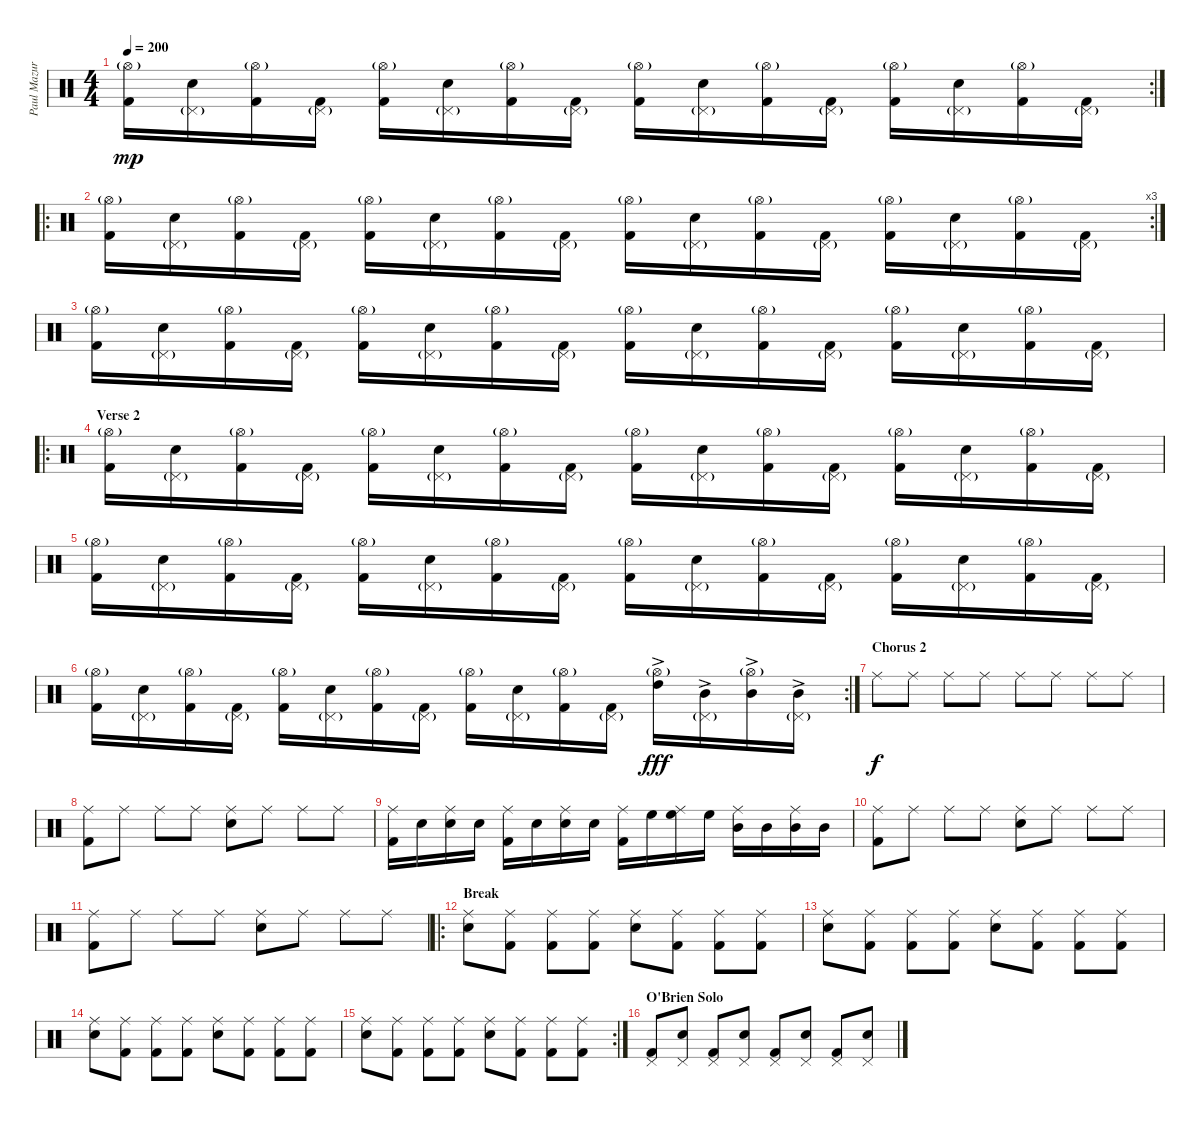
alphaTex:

\track ("Paul Mazurkiewicz" "Paul Mazur") {instrument percussion}
\staff {score}
\articulation defaults
\rc 2
\ts (4 4)
\tempo 200
\clef neutral
\ks c
("Hi-Hat (open)"{g} "Kick (hit) 2").16{dy mp} ("Pedal Hi-Hat (hit)"{g} "Electric Snare (hit)").16 ("Hi-Hat (open)"{g} "Kick (hit) 2").16 ("Pedal Hi-Hat (hit)"{g} "Kick (hit) 2").16 ("Hi-Hat (open)"{g} "Kick (hit) 2").16 ("Pedal Hi-Hat (hit)"{g} "Electric Snare (hit)").16 ("Hi-Hat (open)"{g} "Kick (hit) 2").16 ("Pedal Hi-Hat (hit)"{g} "Kick (hit) 2").16 ("Hi-Hat (open)"{g} "Kick (hit) 2").16 ("Pedal Hi-Hat (hit)"{g} "Electric Snare (hit)").16 ("Hi-Hat (open)"{g} "Kick (hit) 2").16 ("Pedal Hi-Hat (hit)"{g} "Kick (hit) 2").16 ("Hi-Hat (open)"{g} "Kick (hit) 2").16 ("Pedal Hi-Hat (hit)"{g} "Electric Snare (hit)").16 ("Hi-Hat (open)"{g} "Kick (hit) 2").16 ("Pedal Hi-Hat (hit)"{g} "Kick (hit) 2").16 |
\ro
\rc 3
("Hi-Hat (open)"{g} "Kick (hit) 2").16 ("Pedal Hi-Hat (hit)"{g} "Electric Snare (hit)").16 ("Hi-Hat (open)"{g} "Kick (hit) 2").16 ("Pedal Hi-Hat (hit)"{g} "Kick (hit) 2").16 ("Hi-Hat (open)"{g} "Kick (hit) 2").16 ("Pedal Hi-Hat (hit)"{g} "Electric Snare (hit)").16 ("Hi-Hat (open)"{g} "Kick (hit) 2").16 ("Pedal Hi-Hat (hit)"{g} "Kick (hit) 2").16 ("Hi-Hat (open)"{g} "Kick (hit) 2").16 ("Pedal Hi-Hat (hit)"{g} "Electric Snare (hit)").16 ("Hi-Hat (open)"{g} "Kick (hit) 2").16 ("Pedal Hi-Hat (hit)"{g} "Kick (hit) 2").16 ("Hi-Hat (open)"{g} "Kick (hit) 2").16 ("Pedal Hi-Hat (hit)"{g} "Electric Snare (hit)").16 ("Hi-Hat (open)"{g} "Kick (hit) 2").16 ("Pedal Hi-Hat (hit)"{g} "Kick (hit) 2").16 |
("Hi-Hat (open)"{g} "Kick (hit) 2").16 ("Pedal Hi-Hat (hit)"{g} "Electric Snare (hit)").16 ("Hi-Hat (open)"{g} "Kick (hit) 2").16 ("Pedal Hi-Hat (hit)"{g} "Kick (hit) 2").16 ("Hi-Hat (open)"{g} "Kick (hit) 2").16 ("Pedal Hi-Hat (hit)"{g} "Electric Snare (hit)").16 ("Hi-Hat (open)"{g} "Kick (hit) 2").16 ("Pedal Hi-Hat (hit)"{g} "Kick (hit) 2").16 ("Hi-Hat (open)"{g} "Kick (hit) 2").16 ("Pedal Hi-Hat (hit)"{g} "Electric Snare (hit)").16 ("Hi-Hat (open)"{g} "Kick (hit) 2").16 ("Pedal Hi-Hat (hit)"{g} "Kick (hit) 2").16 ("Hi-Hat (open)"{g} "Kick (hit) 2").16 ("Pedal Hi-Hat (hit)"{g} "Electric Snare (hit)").16 ("Hi-Hat (open)"{g} "Kick (hit) 2").16 ("Pedal Hi-Hat (hit)"{g} "Kick (hit) 2").16 |
\ro
\section ("" "Verse 2")
("Hi-Hat (open)"{g} "Kick (hit) 2").16 ("Pedal Hi-Hat (hit)"{g} "Electric Snare (hit)").16 ("Hi-Hat (open)"{g} "Kick (hit) 2").16 ("Pedal Hi-Hat (hit)"{g} "Kick (hit) 2").16 ("Hi-Hat (open)"{g} "Kick (hit) 2").16 ("Pedal Hi-Hat (hit)"{g} "Electric Snare (hit)").16 ("Hi-Hat (open)"{g} "Kick (hit) 2").16 ("Pedal Hi-Hat (hit)"{g} "Kick (hit) 2").16 ("Hi-Hat (open)"{g} "Kick (hit) 2").16 ("Pedal Hi-Hat (hit)"{g} "Electric Snare (hit)").16 ("Hi-Hat (open)"{g} "Kick (hit) 2").16 ("Pedal Hi-Hat (hit)"{g} "Kick (hit) 2").16 ("Hi-Hat (open)"{g} "Kick (hit) 2").16 ("Pedal Hi-Hat (hit)"{g} "Electric Snare (hit)").16 ("Hi-Hat (open)"{g} "Kick (hit) 2").16 ("Pedal Hi-Hat (hit)"{g} "Kick (hit) 2").16 |
("Hi-Hat (open)"{g} "Kick (hit) 2").16 ("Pedal Hi-Hat (hit)"{g} "Electric Snare (hit)").16 ("Hi-Hat (open)"{g} "Kick (hit) 2").16 ("Pedal Hi-Hat (hit)"{g} "Kick (hit) 2").16 ("Hi-Hat (open)"{g} "Kick (hit) 2").16 ("Pedal Hi-Hat (hit)"{g} "Electric Snare (hit)").16 ("Hi-Hat (open)"{g} "Kick (hit) 2").16 ("Pedal Hi-Hat (hit)"{g} "Kick (hit) 2").16 ("Hi-Hat (open)"{g} "Kick (hit) 2").16 ("Pedal Hi-Hat (hit)"{g} "Electric Snare (hit)").16 ("Hi-Hat (open)"{g} "Kick (hit) 2").16 ("Pedal Hi-Hat (hit)"{g} "Kick (hit) 2").16 ("Hi-Hat (open)"{g} "Kick (hit) 2").16 ("Pedal Hi-Hat (hit)"{g} "Electric Snare (hit)").16 ("Hi-Hat (open)"{g} "Kick (hit) 2").16 ("Pedal Hi-Hat (hit)"{g} "Kick (hit) 2").16 |
\rc 2
("Hi-Hat (open)"{g} "Kick (hit) 2").16 ("Pedal Hi-Hat (hit)"{g} "Electric Snare (hit)").16 ("Hi-Hat (open)"{g} "Kick (hit) 2").16 ("Pedal Hi-Hat (hit)"{g} "Kick (hit) 2").16 ("Hi-Hat (open)"{g} "Kick (hit) 2").16 ("Pedal Hi-Hat (hit)"{g} "Electric Snare (hit)").16 ("Hi-Hat (open)"{g} "Kick (hit) 2").16 ("Pedal Hi-Hat (hit)"{g} "Kick (hit) 2").16 ("Hi-Hat (open)"{g} "Kick (hit) 2").16 ("Pedal Hi-Hat (hit)"{g} "Electric Snare (hit)").16 ("Hi-Hat (open)"{g} "Kick (hit) 2").16 ("Pedal Hi-Hat (hit)"{g} "Kick (hit) 2").16 ("Hi-Hat (open)"{g} "High Tom (hit)"{ac}).16{dy fff} ("Pedal Hi-Hat (hit)"{g} "Mid Tom (hit)"{ac}).16 ("Hi-Hat (open)"{g} "Mid Tom (hit)"{ac}).16 ("Pedal Hi-Hat (hit)"{g} "Mid Tom (hit)"{ac}).16 |
\section ("" "Chorus 2")
"Ride (middle)".8{dy f} "Ride (middle)".8 "Ride (middle)".8 "Ride (middle)".8 "Ride (middle)".8 "Ride (middle)".8 "Ride (middle)".8 "Ride (middle)".8 |
("Ride (middle)" "Kick (hit) 2").8 "Ride (middle)".8 "Ride (middle)".8 "Ride (middle)".8 ("Ride (middle)" "Electric Snare (hit)").8 "Ride (middle)".8 "Ride (middle)".8 "Ride (middle)".8 |
("Ride (middle)" "Kick (hit) 2").16 "Electric Snare (hit)".16 ("Ride (middle)" "Electric Snare (hit)").16 "Electric Snare (hit)".16 ("Ride (middle)" "Kick (hit) 2").16 "Electric Snare (hit)".16 ("Ride (middle)" "Electric Snare (hit)").16 "Electric Snare (hit)".16 ("Ride (middle)" "Kick (hit) 2").16 "High Floor Tom (hit)".16 ("Ride (middle)" "High Floor Tom (hit)").16 "High Floor Tom (hit)".16 ("Ride (middle)" "Mid Tom (hit)").16 "Mid Tom (hit)".16 ("Ride (middle)" "Mid Tom (hit)").16 "Mid Tom (hit)".16 |
("Ride (middle)" "Kick (hit) 2").8 "Ride (middle)".8 "Ride (middle)".8 "Ride (middle)".8 ("Ride (middle)" "Electric Snare (hit)").8 "Ride (middle)".8 "Ride (middle)".8 "Ride (middle)".8 |
("Ride (middle)" "Kick (hit) 2").8 "Ride (middle)".8 "Ride (middle)".8 "Ride (middle)".8 ("Ride (middle)" "Electric Snare (hit)").8 "Ride (middle)".8 "Ride (middle)".8 "Ride (middle)".8 |
\ro
\section ("" "Break")
("Ride (middle)" "Electric Snare (hit)").8 ("Ride (middle)" "Kick (hit) 2").8 ("Ride (middle)" "Kick (hit) 2").8 ("Ride (middle)" "Kick (hit) 2").8 ("Ride (middle)" "Electric Snare (hit)").8 ("Ride (middle)" "Kick (hit) 2").8 ("Ride (middle)" "Kick (hit) 2").8 ("Ride (middle)" "Kick (hit) 2").8 |
("Ride (middle)" "Electric Snare (hit)").8 ("Ride (middle)" "Kick (hit) 2").8 ("Ride (middle)" "Kick (hit) 2").8 ("Ride (middle)" "Kick (hit) 2").8 ("Ride (middle)" "Electric Snare (hit)").8 ("Ride (middle)" "Kick (hit) 2").8 ("Ride (middle)" "Kick (hit) 2").8 ("Ride (middle)" "Kick (hit) 2").8 |
("Ride (middle)" "Electric Snare (hit)").8 ("Ride (middle)" "Kick (hit) 2").8 ("Ride (middle)" "Kick (hit) 2").8 ("Ride (middle)" "Kick (hit) 2").8 ("Ride (middle)" "Electric Snare (hit)").8 ("Ride (middle)" "Kick (hit) 2").8 ("Ride (middle)" "Kick (hit) 2").8 ("Ride (middle)" "Kick (hit) 2").8 |
\rc 2
("Ride (middle)" "Electric Snare (hit)").8 ("Ride (middle)" "Kick (hit) 2").8 ("Ride (middle)" "Kick (hit) 2").8 ("Ride (middle)" "Kick (hit) 2").8 ("Ride (middle)" "Electric Snare (hit)").8 ("Ride (middle)" "Kick (hit) 2").8 ("Ride (middle)" "Kick (hit) 2").8 ("Ride (middle)" "Kick (hit) 2").8 |
\section ("" "O'Brien Solo")
("Pedal Hi-Hat (hit)" "Kick (hit) 2").8 ("Pedal Hi-Hat (hit)" "Electric Snare (hit)").8 ("Pedal Hi-Hat (hit)" "Kick (hit) 2").8 ("Pedal Hi-Hat (hit)" "Electric Snare (hit)").8 ("Pedal Hi-Hat (hit)" "Kick (hit) 2").8 ("Pedal Hi-Hat (hit)" "Electric Snare (hit)").8 ("Pedal Hi-Hat (hit)" "Kick (hit) 2").8 ("Pedal Hi-Hat (hit)" "Electric Snare (hit)").8
